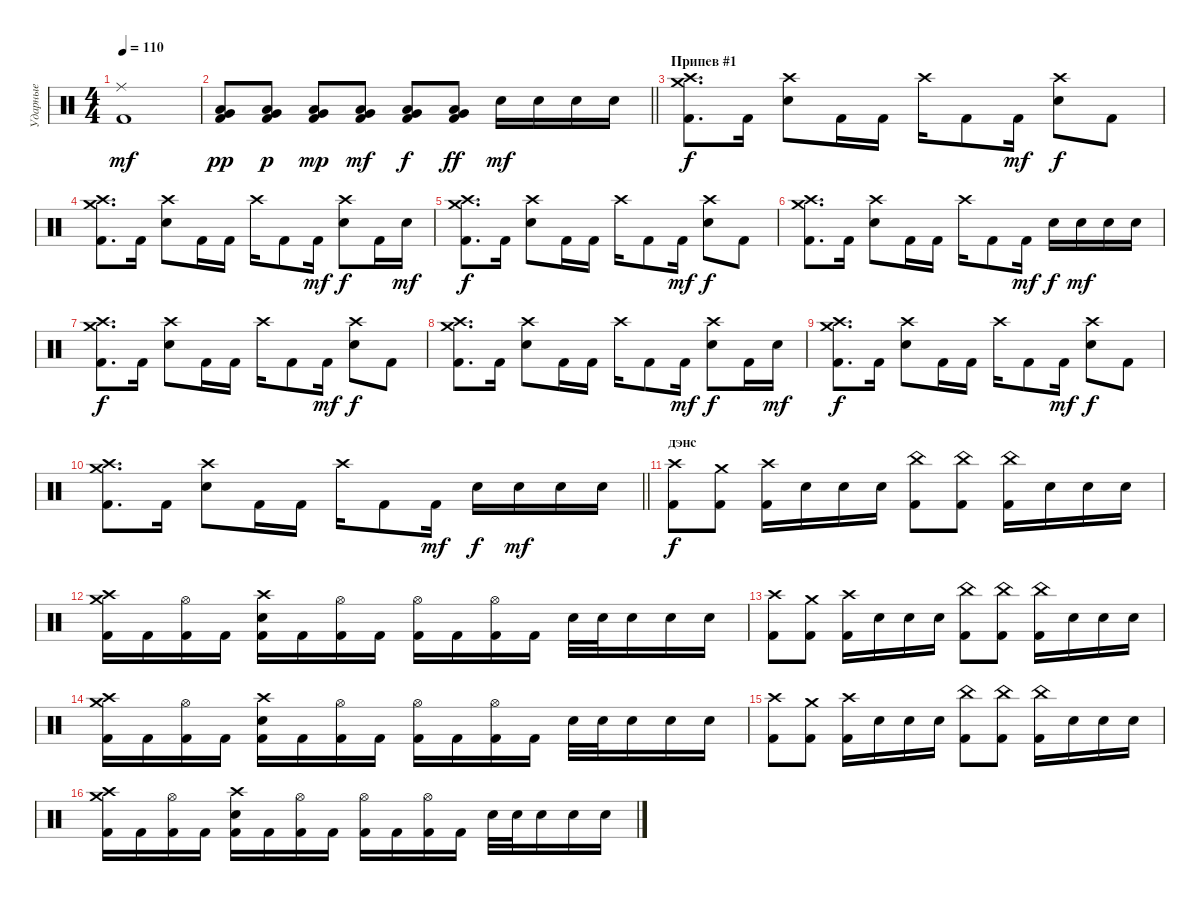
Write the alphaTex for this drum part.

\track ("Ударные" "Ударные") {instrument percussion}
\staff
\articulation defaults
\ts (4 4)
\tempo 110
\clef neutral
\ks c
("Ride (middle)" "Kick (hit) 2").1{dy mf} |
\barLineRight lightlight
("Low Tom (hit)" "Kick (hit) 2" "Very Low Tom (hit)").8{dy pp} ("Low Tom (hit)" "Kick (hit) 2" "Very Low Tom (hit)").8{dy p} ("Low Tom (hit)" "Kick (hit) 2" "Very Low Tom (hit)").8{dy mp} ("Low Tom (hit)" "Kick (hit) 2" "Very Low Tom (hit)").8{dy mf} ("Low Tom (hit)" "Kick (hit) 2" "Very Low Tom (hit)").8{dy f} ("Low Tom (hit)" "Kick (hit) 2" "Very Low Tom (hit)").8{dy ff} "Electric Snare (hit)".16{dy mf} "Electric Snare (hit)".16 "Electric Snare (hit)".16 "Electric Snare (hit)".16 |
\section ("" "Припев #1")
("Crash medium (hit)" "Crash high (hit)" "Kick (hit) 2").8{d dy f} "Kick (hit) 2".16 ("Crash high (hit)" "Electric Snare (hit)").8 "Kick (hit) 2".16 "Kick (hit) 2".16 "Crash high (hit)".16 "Kick (hit) 2".8 "Kick (hit) 2".16{dy mf} ("Crash high (hit)" "Electric Snare (hit)").8{dy f} "Kick (hit) 2".8 |
("Crash medium (hit)" "Crash high (hit)" "Kick (hit) 2").8{d} "Kick (hit) 2".16 ("Crash high (hit)" "Electric Snare (hit)").8 "Kick (hit) 2".16 "Kick (hit) 2".16 "Crash high (hit)".16 "Kick (hit) 2".8 "Kick (hit) 2".16{dy mf} ("Crash high (hit)" "Electric Snare (hit)").8{dy f} "Kick (hit) 2".16 "Electric Snare (hit)".16{dy mf} |
("Crash medium (hit)" "Crash high (hit)" "Kick (hit) 2").8{d dy f} "Kick (hit) 2".16 ("Crash high (hit)" "Electric Snare (hit)").8 "Kick (hit) 2".16 "Kick (hit) 2".16 "Crash high (hit)".16 "Kick (hit) 2".8 "Kick (hit) 2".16{dy mf} ("Crash high (hit)" "Electric Snare (hit)").8{dy f} "Kick (hit) 2".8 |
("Crash medium (hit)" "Crash high (hit)" "Kick (hit) 2").8{d} "Kick (hit) 2".16 ("Crash high (hit)" "Electric Snare (hit)").8 "Kick (hit) 2".16 "Kick (hit) 2".16 "Crash high (hit)".16 "Kick (hit) 2".8 "Kick (hit) 2".16{dy mf} "Electric Snare (hit)".16{dy f} "Electric Snare (hit)".16{dy mf} "Electric Snare (hit)".16 "Electric Snare (hit)".16 |
("Crash medium (hit)" "Crash high (hit)" "Kick (hit) 2").8{d dy f} "Kick (hit) 2".16 ("Crash high (hit)" "Electric Snare (hit)").8 "Kick (hit) 2".16 "Kick (hit) 2".16 "Crash high (hit)".16 "Kick (hit) 2".8 "Kick (hit) 2".16{dy mf} ("Crash high (hit)" "Electric Snare (hit)").8{dy f} "Kick (hit) 2".8 |
("Crash medium (hit)" "Crash high (hit)" "Kick (hit) 2").8{d} "Kick (hit) 2".16 ("Crash high (hit)" "Electric Snare (hit)").8 "Kick (hit) 2".16 "Kick (hit) 2".16 "Crash high (hit)".16 "Kick (hit) 2".8 "Kick (hit) 2".16{dy mf} ("Crash high (hit)" "Electric Snare (hit)").8{dy f} "Kick (hit) 2".16 "Electric Snare (hit)".16{dy mf} |
("Crash medium (hit)" "Crash high (hit)" "Kick (hit) 2").8{d dy f} "Kick (hit) 2".16 ("Crash high (hit)" "Electric Snare (hit)").8 "Kick (hit) 2".16 "Kick (hit) 2".16 "Crash high (hit)".16 "Kick (hit) 2".8 "Kick (hit) 2".16{dy mf} ("Crash high (hit)" "Electric Snare (hit)").8{dy f} "Kick (hit) 2".8 |
\barLineRight lightlight
("Crash medium (hit)" "Crash high (hit)" "Kick (hit) 2").8{d} "Kick (hit) 2".16 ("Crash high (hit)" "Electric Snare (hit)").8 "Kick (hit) 2".16 "Kick (hit) 2".16 "Crash high (hit)".16 "Kick (hit) 2".8 "Kick (hit) 2".16{dy mf} "Electric Snare (hit)".16{dy f} "Electric Snare (hit)".16{dy mf} "Electric Snare (hit)".16 "Electric Snare (hit)".16 |
\section ("" "дэнс")
("Crash high (hit)" "Kick (hit) 2").8{dy f} ("Crash medium (hit)" "Kick (hit) 2").8 ("Crash high (hit)" "Kick (hit) 2").16 "Electric Snare (hit)".16 "Electric Snare (hit)".16 "Electric Snare (hit)".16 ("China (hit)" "Kick (hit) 2").8 ("China (hit)" "Kick (hit) 2").8 ("China (hit)" "Kick (hit) 2").16 "Electric Snare (hit)".16 "Electric Snare (hit)".16 "Electric Snare (hit)".16 |
("Crash high (hit)" "Crash medium (hit)" "Kick (hit) 2").16 "Kick (hit) 2".16 ("Hi-Hat (open)" "Kick (hit) 2").16 "Kick (hit) 2".16 ("Crash high (hit)" "Electric Snare (hit)" "Kick (hit) 2").16 "Kick (hit) 2".16 ("Hi-Hat (open)" "Kick (hit) 2").16 "Kick (hit) 2".16 ("Hi-Hat (open)" "Kick (hit) 2").16 "Kick (hit) 2".16 ("Hi-Hat (open)" "Kick (hit) 2").16 "Kick (hit) 2".16 "Electric Snare (hit)".32 "Electric Snare (hit)".32 "Electric Snare (hit)".16 "Electric Snare (hit)".16 "Electric Snare (hit)".16 |
("Crash high (hit)" "Kick (hit) 2").8 ("Crash medium (hit)" "Kick (hit) 2").8 ("Crash high (hit)" "Kick (hit) 2").16 "Electric Snare (hit)".16 "Electric Snare (hit)".16 "Electric Snare (hit)".16 ("China (hit)" "Kick (hit) 2").8 ("China (hit)" "Kick (hit) 2").8 ("China (hit)" "Kick (hit) 2").16 "Electric Snare (hit)".16 "Electric Snare (hit)".16 "Electric Snare (hit)".16 |
("Crash high (hit)" "Crash medium (hit)" "Kick (hit) 2").16 "Kick (hit) 2".16 ("Hi-Hat (open)" "Kick (hit) 2").16 "Kick (hit) 2".16 ("Crash high (hit)" "Electric Snare (hit)" "Kick (hit) 2").16 "Kick (hit) 2".16 ("Hi-Hat (open)" "Kick (hit) 2").16 "Kick (hit) 2".16 ("Hi-Hat (open)" "Kick (hit) 2").16 "Kick (hit) 2".16 ("Hi-Hat (open)" "Kick (hit) 2").16 "Kick (hit) 2".16 "Electric Snare (hit)".32 "Electric Snare (hit)".32 "Electric Snare (hit)".16 "Electric Snare (hit)".16 "Electric Snare (hit)".16 |
("Crash high (hit)" "Kick (hit) 2").8 ("Crash medium (hit)" "Kick (hit) 2").8 ("Crash high (hit)" "Kick (hit) 2").16 "Electric Snare (hit)".16 "Electric Snare (hit)".16 "Electric Snare (hit)".16 ("China (hit)" "Kick (hit) 2").8 ("China (hit)" "Kick (hit) 2").8 ("China (hit)" "Kick (hit) 2").16 "Electric Snare (hit)".16 "Electric Snare (hit)".16 "Electric Snare (hit)".16 |
("Crash high (hit)" "Crash medium (hit)" "Kick (hit) 2").16 "Kick (hit) 2".16 ("Hi-Hat (open)" "Kick (hit) 2").16 "Kick (hit) 2".16 ("Crash high (hit)" "Electric Snare (hit)" "Kick (hit) 2").16 "Kick (hit) 2".16 ("Hi-Hat (open)" "Kick (hit) 2").16 "Kick (hit) 2".16 ("Hi-Hat (open)" "Kick (hit) 2").16 "Kick (hit) 2".16 ("Hi-Hat (open)" "Kick (hit) 2").16 "Kick (hit) 2".16 "Electric Snare (hit)".32 "Electric Snare (hit)".32 "Electric Snare (hit)".16 "Electric Snare (hit)".16 "Electric Snare (hit)".16
